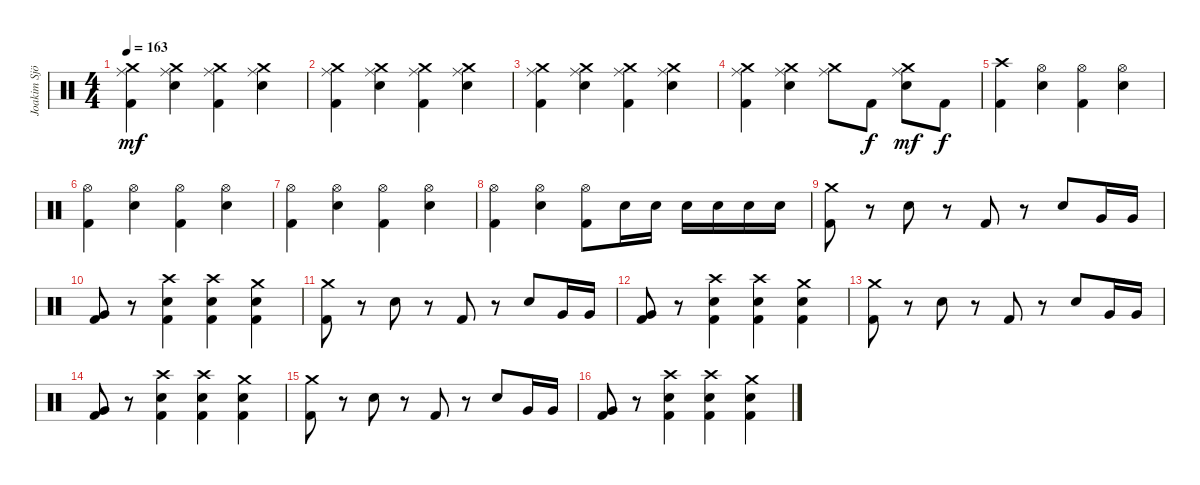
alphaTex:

\track ("Joakim Sjöberg" "Joakim Sjö") {instrument percussion}
\staff {score}
\articulation defaults
\ts (4 4)
\tempo 163
\clef neutral
\ks c
("Ride (middle)" "Crash medium (hit)" "Kick (hit) 2").4{dy mf} ("Ride (middle)" "Crash medium (hit)" "Electric Snare (hit)").4 ("Ride (middle)" "Crash medium (hit)" "Kick (hit) 2").4 ("Ride (middle)" "Crash medium (hit)" "Electric Snare (hit)").4 |
("Ride (middle)" "Crash medium (hit)" "Kick (hit) 2").4 ("Ride (middle)" "Crash medium (hit)" "Electric Snare (hit)").4 ("Ride (middle)" "Crash medium (hit)" "Kick (hit) 2").4 ("Ride (middle)" "Crash medium (hit)" "Electric Snare (hit)").4 |
("Ride (middle)" "Crash medium (hit)" "Kick (hit) 2").4 ("Ride (middle)" "Crash medium (hit)" "Electric Snare (hit)").4 ("Ride (middle)" "Crash medium (hit)" "Kick (hit) 2").4 ("Ride (middle)" "Crash medium (hit)" "Electric Snare (hit)").4 |
("Ride (middle)" "Crash medium (hit)" "Kick (hit) 2").4 ("Ride (middle)" "Crash medium (hit)" "Electric Snare (hit)").4 ("Ride (middle)" "Crash medium (hit)").8 "Kick (hit) 2".8{dy f} ("Ride (middle)" "Crash medium (hit)" "Electric Snare (hit)").8{dy mf} "Kick (hit) 2".8{dy f} |
("Crash high (hit)" "Kick (hit) 2").4 ("Hi-Hat (open)" "Electric Snare (hit)").4 ("Hi-Hat (open)" "Kick (hit) 2").4 ("Hi-Hat (open)" "Electric Snare (hit)").4 |
("Hi-Hat (open)" "Kick (hit) 2").4 ("Hi-Hat (open)" "Electric Snare (hit)").4 ("Hi-Hat (open)" "Kick (hit) 2").4 ("Hi-Hat (open)" "Electric Snare (hit)").4 |
("Hi-Hat (open)" "Kick (hit) 2").4 ("Hi-Hat (open)" "Electric Snare (hit)").4 ("Hi-Hat (open)" "Kick (hit) 2").4 ("Hi-Hat (open)" "Electric Snare (hit)").4 |
("Hi-Hat (open)" "Kick (hit) 2").4 ("Hi-Hat (open)" "Electric Snare (hit)").4 ("Hi-Hat (open)" "Kick (hit) 2").8 "Electric Snare (hit)".16 "Electric Snare (hit)".16 "Electric Snare (hit)".16 "Electric Snare (hit)".16 "Electric Snare (hit)".16 "Electric Snare (hit)".16 |
("Crash medium (hit)" "Kick (hit) 2").8 r.8 "Electric Snare (hit)".8 r.8 "Kick (hit) 2".8 r.8 "Electric Snare (hit)".8 "Very Low Tom (hit)".16 "Very Low Tom (hit)".16 |
("Very Low Tom (hit)" "Kick (hit) 2").8 r.8 ("Crash high (hit)" "Electric Snare (hit)" "Kick (hit) 2").4 ("Crash high (hit)" "Electric Snare (hit)" "Kick (hit) 2").4 ("Crash medium (hit)" "Electric Snare (hit)" "Kick (hit) 2").4 |
("Crash medium (hit)" "Kick (hit) 2").8 r.8 "Electric Snare (hit)".8 r.8 "Kick (hit) 2".8 r.8 "Electric Snare (hit)".8 "Very Low Tom (hit)".16 "Very Low Tom (hit)".16 |
("Very Low Tom (hit)" "Kick (hit) 2").8 r.8 ("Crash high (hit)" "Electric Snare (hit)" "Kick (hit) 2").4 ("Crash high (hit)" "Electric Snare (hit)" "Kick (hit) 2").4 ("Crash medium (hit)" "Electric Snare (hit)" "Kick (hit) 2").4 |
("Crash medium (hit)" "Kick (hit) 2").8 r.8 "Electric Snare (hit)".8 r.8 "Kick (hit) 2".8 r.8 "Electric Snare (hit)".8 "Very Low Tom (hit)".16 "Very Low Tom (hit)".16 |
("Very Low Tom (hit)" "Kick (hit) 2").8 r.8 ("Crash high (hit)" "Electric Snare (hit)" "Kick (hit) 2").4 ("Crash high (hit)" "Electric Snare (hit)" "Kick (hit) 2").4 ("Crash medium (hit)" "Electric Snare (hit)" "Kick (hit) 2").4 |
("Crash medium (hit)" "Kick (hit) 2").8 r.8 "Electric Snare (hit)".8 r.8 "Kick (hit) 2".8 r.8 "Electric Snare (hit)".8 "Very Low Tom (hit)".16 "Very Low Tom (hit)".16 |
("Very Low Tom (hit)" "Kick (hit) 2").8 r.8 ("Crash high (hit)" "Electric Snare (hit)" "Kick (hit) 2").4 ("Crash high (hit)" "Electric Snare (hit)" "Kick (hit) 2").4 ("Crash medium (hit)" "Electric Snare (hit)" "Kick (hit) 2").4
